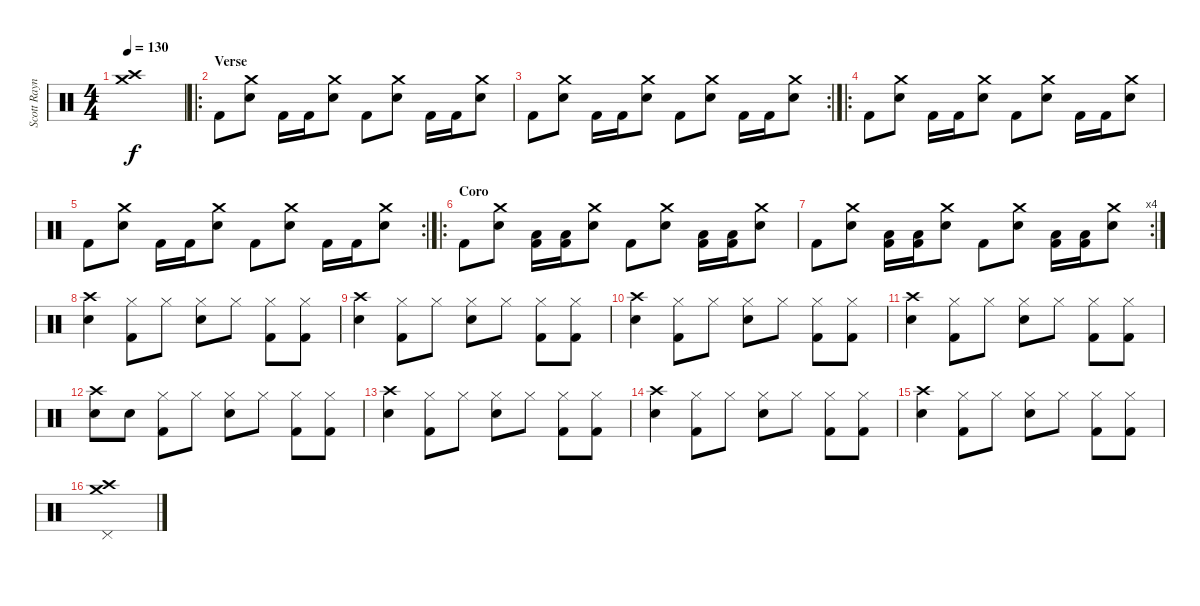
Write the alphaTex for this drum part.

\track ("Scott Raynor Drums" "Scott Rayn") {instrument percussion}
\staff {score}
\articulation defaults
\ts (4 4)
\tempo 130
\clef neutral
\ks c
("Crash high (hit)" "Crash medium (hit)").1{dy f} |
\ro
\section ("" "Verse")
"Kick (hit) 2".8 ("Crash medium (hit)" "Electric Snare (hit)").8 "Kick (hit) 2".16 "Kick (hit) 2".16 ("Crash medium (hit)" "Electric Snare (hit)").8 "Kick (hit) 2".8 ("Crash medium (hit)" "Electric Snare (hit)").8 "Kick (hit) 2".16 "Kick (hit) 2".16 ("Crash medium (hit)" "Electric Snare (hit)").8 |
\rc 2 "Kick (hit) 2".8
("Crash medium (hit)" "Electric Snare (hit)").8 "Kick (hit) 2".16 "Kick (hit) 2".16 ("Crash medium (hit)" "Electric Snare (hit)").8 "Kick (hit) 2".8 ("Crash medium (hit)" "Electric Snare (hit)").8 "Kick (hit) 2".16 "Kick (hit) 2".16 ("Crash medium (hit)" "Electric Snare (hit)").8 |
\ro "Kick (hit) 2".8
("Crash medium (hit)" "Electric Snare (hit)").8 "Kick (hit) 2".16 "Kick (hit) 2".16 ("Crash medium (hit)" "Electric Snare (hit)").8 "Kick (hit) 2".8 ("Crash medium (hit)" "Electric Snare (hit)").8 "Kick (hit) 2".16 "Kick (hit) 2".16 ("Crash medium (hit)" "Electric Snare (hit)").8 |
\rc 2 "Kick (hit) 2".8
("Crash medium (hit)" "Electric Snare (hit)").8 "Kick (hit) 2".16 "Kick (hit) 2".16 ("Crash medium (hit)" "Electric Snare (hit)").8 "Kick (hit) 2".8 ("Crash medium (hit)" "Electric Snare (hit)").8 "Kick (hit) 2".16 "Kick (hit) 2".16 ("Crash medium (hit)" "Electric Snare (hit)").8 |
\ro
\section ("" "Coro")
"Kick (hit) 2".8 ("Crash medium (hit)" "Electric Snare (hit)").8 ("Low Tom (hit)" "Kick (hit) 2").16 ("Low Tom (hit)" "Kick (hit) 2").16 ("Crash medium (hit)" "Electric Snare (hit)").8 "Kick (hit) 2".8 ("Crash medium (hit)" "Electric Snare (hit)").8 ("Low Tom (hit)" "Kick (hit) 2").16 ("Low Tom (hit)" "Kick (hit) 2").16 ("Crash medium (hit)" "Electric Snare (hit)").8 |
\rc 4 "Kick (hit) 2".8
("Crash medium (hit)" "Electric Snare (hit)").8 ("Low Tom (hit)" "Kick (hit) 2").16 ("Low Tom (hit)" "Kick (hit) 2").16 ("Crash medium (hit)" "Electric Snare (hit)").8 "Kick (hit) 2".8 ("Crash medium (hit)" "Electric Snare (hit)").8 ("Low Tom (hit)" "Kick (hit) 2").16 ("Low Tom (hit)" "Kick (hit) 2").16 ("Crash medium (hit)" "Electric Snare (hit)").8 |
("Crash high (hit)" "Electric Snare (hit)").4 ("Hi-Hat (closed)" "Kick (hit) 2").8 "Hi-Hat (closed)".8 ("Hi-Hat (closed)" "Electric Snare (hit)").8 "Hi-Hat (closed)".8 ("Hi-Hat (closed)" "Kick (hit) 2").8 ("Hi-Hat (closed)" "Kick (hit) 2").8 |
("Crash high (hit)" "Electric Snare (hit)").4 ("Hi-Hat (closed)" "Kick (hit) 2").8 "Hi-Hat (closed)".8 ("Hi-Hat (closed)" "Electric Snare (hit)").8 "Hi-Hat (closed)".8 ("Hi-Hat (closed)" "Kick (hit) 2").8 ("Hi-Hat (closed)" "Kick (hit) 2").8 |
("Crash high (hit)" "Electric Snare (hit)").4 ("Hi-Hat (closed)" "Kick (hit) 2").8 "Hi-Hat (closed)".8 ("Hi-Hat (closed)" "Electric Snare (hit)").8 "Hi-Hat (closed)".8 ("Hi-Hat (closed)" "Kick (hit) 2").8 ("Hi-Hat (closed)" "Kick (hit) 2").8 |
("Crash high (hit)" "Electric Snare (hit)").4 ("Hi-Hat (closed)" "Kick (hit) 2").8 "Hi-Hat (closed)".8 ("Hi-Hat (closed)" "Electric Snare (hit)").8 "Hi-Hat (closed)".8 ("Hi-Hat (closed)" "Kick (hit) 2").8 ("Hi-Hat (closed)" "Kick (hit) 2").8 |
("Crash high (hit)" "Electric Snare (hit)").8 "Electric Snare (hit)".8 ("Hi-Hat (closed)" "Kick (hit) 2").8 "Hi-Hat (closed)".8 ("Hi-Hat (closed)" "Electric Snare (hit)").8 "Hi-Hat (closed)".8 ("Hi-Hat (closed)" "Kick (hit) 2").8 ("Hi-Hat (closed)" "Kick (hit) 2").8 |
("Crash high (hit)" "Electric Snare (hit)").4 ("Hi-Hat (closed)" "Kick (hit) 2").8 "Hi-Hat (closed)".8 ("Hi-Hat (closed)" "Electric Snare (hit)").8 "Hi-Hat (closed)".8 ("Hi-Hat (closed)" "Kick (hit) 2").8 ("Hi-Hat (closed)" "Kick (hit) 2").8 |
("Crash high (hit)" "Electric Snare (hit)").4 ("Hi-Hat (closed)" "Kick (hit) 2").8 "Hi-Hat (closed)".8 ("Hi-Hat (closed)" "Electric Snare (hit)").8 "Hi-Hat (closed)".8 ("Hi-Hat (closed)" "Kick (hit) 2").8 ("Hi-Hat (closed)" "Kick (hit) 2").8 |
("Crash high (hit)" "Electric Snare (hit)").4 ("Hi-Hat (closed)" "Kick (hit) 2").8 "Hi-Hat (closed)".8 ("Hi-Hat (closed)" "Electric Snare (hit)").8 "Hi-Hat (closed)".8 ("Hi-Hat (closed)" "Kick (hit) 2").8 ("Hi-Hat (closed)" "Kick (hit) 2").8 |
("Pedal Hi-Hat (hit)" "Crash high (hit)" "Crash medium (hit)").1
